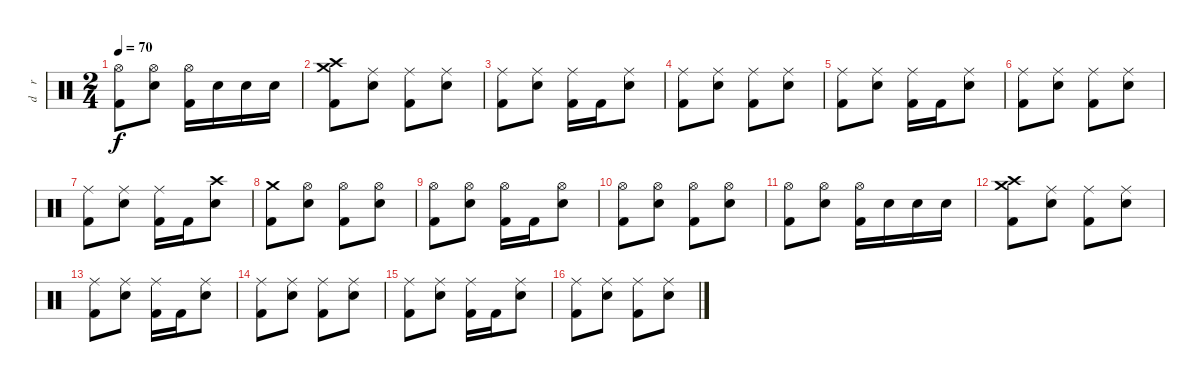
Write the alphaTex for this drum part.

\track ("d    r     u    m    s" "d    r    ") {instrument percussion}
\staff {score}
\articulation defaults
\ts (2 4)
\tempo 70
\clef neutral
\ks c
("Hi-Hat (open)" "Kick (hit) 2").8{dy f} ("Hi-Hat (open)" "Electric Snare (hit)").8 ("Hi-Hat (open)" "Kick (hit) 2").16 "Electric Snare (hit)".16 "Electric Snare (hit)".16 "Electric Snare (hit)".16 |
("Crash high (hit)" "Crash medium (hit)" "Kick (hit) 2").8 ("Ride (middle)" "Electric Snare (hit)").8 ("Ride (middle)" "Kick (hit) 2").8 ("Ride (middle)" "Electric Snare (hit)").8 |
("Ride (middle)" "Kick (hit) 2").8 ("Ride (middle)" "Electric Snare (hit)").8 ("Ride (middle)" "Kick (hit) 2").16 "Kick (hit) 2".16 ("Ride (middle)" "Electric Snare (hit)").8 |
("Ride (middle)" "Kick (hit) 2").8 ("Ride (middle)" "Electric Snare (hit)").8 ("Ride (middle)" "Kick (hit) 2").8 ("Ride (middle)" "Electric Snare (hit)").8 |
("Ride (middle)" "Kick (hit) 2").8 ("Ride (middle)" "Electric Snare (hit)").8 ("Ride (middle)" "Kick (hit) 2").16 "Kick (hit) 2".16 ("Ride (middle)" "Electric Snare (hit)").8 |
("Ride (middle)" "Kick (hit) 2").8 ("Ride (middle)" "Electric Snare (hit)").8 ("Ride (middle)" "Kick (hit) 2").8 ("Ride (middle)" "Electric Snare (hit)").8 |
("Ride (middle)" "Kick (hit) 2").8 ("Ride (middle)" "Electric Snare (hit)").8 ("Ride (middle)" "Kick (hit) 2").16 "Kick (hit) 2".16 ("Crash high (hit)" "Electric Snare (hit)").8 |
("Crash medium (hit)" "Kick (hit) 2").8 ("Hi-Hat (open)" "Electric Snare (hit)").8 ("Hi-Hat (open)" "Kick (hit) 2").8 ("Hi-Hat (open)" "Electric Snare (hit)").8 |
("Hi-Hat (open)" "Kick (hit) 2").8 ("Hi-Hat (open)" "Electric Snare (hit)").8 ("Hi-Hat (open)" "Kick (hit) 2").16 "Kick (hit) 2".16 ("Hi-Hat (open)" "Electric Snare (hit)").8 |
("Hi-Hat (open)" "Kick (hit) 2").8 ("Hi-Hat (open)" "Electric Snare (hit)").8 ("Hi-Hat (open)" "Kick (hit) 2").8 ("Hi-Hat (open)" "Electric Snare (hit)").8 |
("Hi-Hat (open)" "Kick (hit) 2").8 ("Hi-Hat (open)" "Electric Snare (hit)").8 ("Hi-Hat (open)" "Kick (hit) 2").16 "Electric Snare (hit)".16 "Electric Snare (hit)".16 "Electric Snare (hit)".16 |
("Crash high (hit)" "Crash medium (hit)" "Kick (hit) 2").8 ("Ride (middle)" "Electric Snare (hit)").8 ("Ride (middle)" "Kick (hit) 2").8 ("Ride (middle)" "Electric Snare (hit)").8 |
("Ride (middle)" "Kick (hit) 2").8 ("Ride (middle)" "Electric Snare (hit)").8 ("Ride (middle)" "Kick (hit) 2").16 "Kick (hit) 2".16 ("Ride (middle)" "Electric Snare (hit)").8 |
("Ride (middle)" "Kick (hit) 2").8 ("Ride (middle)" "Electric Snare (hit)").8 ("Ride (middle)" "Kick (hit) 2").8 ("Ride (middle)" "Electric Snare (hit)").8 |
("Ride (middle)" "Kick (hit) 2").8 ("Ride (middle)" "Electric Snare (hit)").8 ("Ride (middle)" "Kick (hit) 2").16 "Kick (hit) 2".16 ("Ride (middle)" "Electric Snare (hit)").8 |
("Ride (middle)" "Kick (hit) 2").8 ("Ride (middle)" "Electric Snare (hit)").8 ("Ride (middle)" "Kick (hit) 2").8 ("Ride (middle)" "Electric Snare (hit)").8
